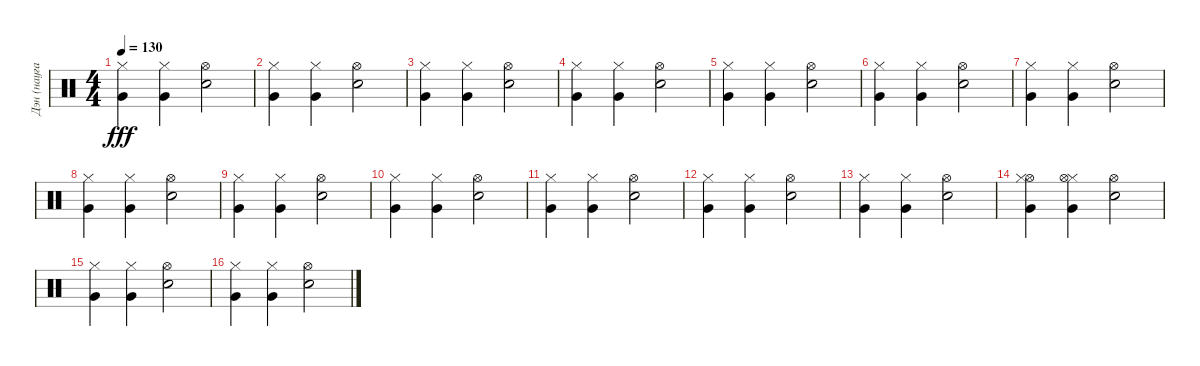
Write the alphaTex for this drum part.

\track ("Дэн (наугад))" "Дэн (науга") {instrument percussion}
\staff {score}
\articulation defaults
\ts (4 4)
\tempo 130
\clef neutral
\ks c
("Hi-Hat (closed)" "Very Low Tom (hit)").4{dy fff} ("Very Low Tom (hit)" "Hi-Hat (closed)").4 ("Snare (hit) 2" "Hi-Hat (open)").2 |
("Hi-Hat (closed)" "Very Low Tom (hit)").4 ("Very Low Tom (hit)" "Hi-Hat (closed)").4 ("Snare (hit) 2" "Hi-Hat (open)").2 |
("Hi-Hat (closed)" "Very Low Tom (hit)").4 ("Very Low Tom (hit)" "Hi-Hat (closed)").4 ("Snare (hit) 2" "Hi-Hat (open)").2 |
("Hi-Hat (closed)" "Very Low Tom (hit)").4 ("Very Low Tom (hit)" "Hi-Hat (closed)").4 ("Snare (hit) 2" "Hi-Hat (open)").2 |
("Hi-Hat (closed)" "Very Low Tom (hit)").4 ("Very Low Tom (hit)" "Hi-Hat (closed)").4 ("Snare (hit) 2" "Hi-Hat (open)").2 |
("Hi-Hat (closed)" "Very Low Tom (hit)").4 ("Very Low Tom (hit)" "Hi-Hat (closed)").4 ("Snare (hit) 2" "Hi-Hat (open)").2 |
("Hi-Hat (closed)" "Very Low Tom (hit)").4 ("Very Low Tom (hit)" "Hi-Hat (closed)").4 ("Snare (hit) 2" "Hi-Hat (open)").2 |
("Hi-Hat (closed)" "Very Low Tom (hit)").4 ("Very Low Tom (hit)" "Hi-Hat (closed)").4 ("Snare (hit) 2" "Hi-Hat (open)").2 |
("Hi-Hat (closed)" "Very Low Tom (hit)").4 ("Very Low Tom (hit)" "Hi-Hat (closed)").4 ("Snare (hit) 2" "Hi-Hat (open)").2 |
("Hi-Hat (closed)" "Very Low Tom (hit)").4 ("Very Low Tom (hit)" "Hi-Hat (closed)").4 ("Snare (hit) 2" "Hi-Hat (open)").2 |
("Hi-Hat (closed)" "Very Low Tom (hit)").4 ("Very Low Tom (hit)" "Hi-Hat (closed)").4 ("Snare (hit) 2" "Hi-Hat (open)").2 |
("Hi-Hat (closed)" "Very Low Tom (hit)").4 ("Very Low Tom (hit)" "Hi-Hat (closed)").4 ("Snare (hit) 2" "Hi-Hat (open)").2 |
("Hi-Hat (closed)" "Very Low Tom (hit)").4 ("Very Low Tom (hit)" "Hi-Hat (closed)").4 ("Snare (hit) 2" "Hi-Hat (open)").2 |
("Hi-Hat (open)" "Hi-Hat (closed)" "Very Low Tom (hit)").4 ("Very Low Tom (hit)" "Hi-Hat (closed)" "Hi-Hat (open)").4 ("Snare (hit) 2" "Hi-Hat (open)").2 |
("Hi-Hat (closed)" "Very Low Tom (hit)").4 ("Very Low Tom (hit)" "Hi-Hat (closed)").4 ("Snare (hit) 2" "Hi-Hat (open)").2 |
("Hi-Hat (closed)" "Very Low Tom (hit)").4 ("Very Low Tom (hit)" "Hi-Hat (closed)").4 ("Snare (hit) 2" "Hi-Hat (open)").2
